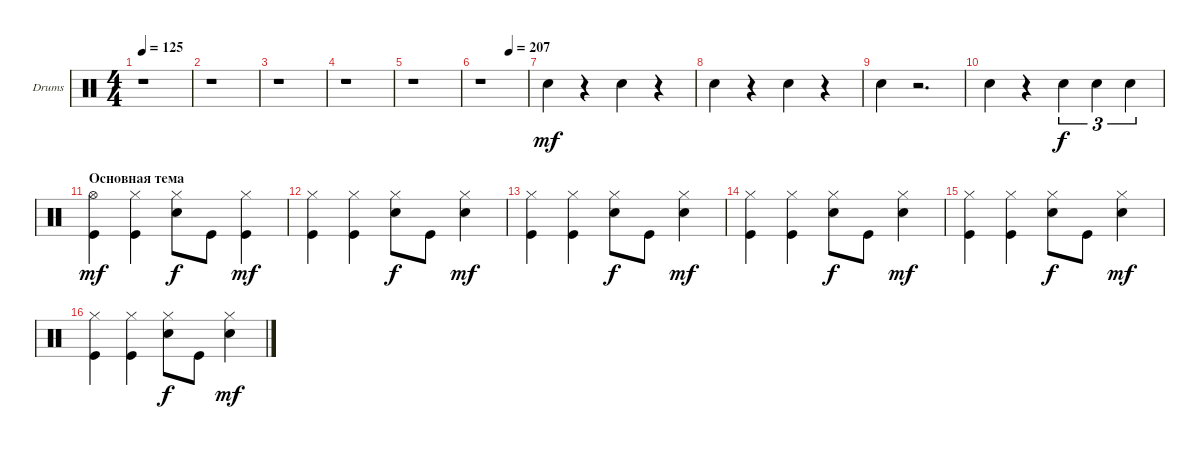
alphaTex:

\defaultSystemsLayout 4
\bracketExtendMode groupsimilarinstruments
\firstSystemTrackNameOrientation horizontal
\otherSystemsTrackNameOrientation horizontal
\track ("Drumkit" "Drums") {instrument percussion}
\staff {score}
\articulation defaults
\ts (4 4)
\tempo 125
\clef neutral
\ks c
r.1{dy mf} |
\scale
0.474178 r.1 |
\scale
0.262911 r.1 |
\scale
0.262911 r.1 |
\scale
0.333333 r.1 |
\tempo (207 0.625)
\scale
0.333333 r.1 |
\scale
0.333333 "Snare (hit) 2".4 r.4 "Snare (hit) 2".4 r.4 |
\scale
0.333333 "Snare (hit) 2".4 r.4 "Snare (hit) 2".4 r.4 |
\scale
0.333333 "Snare (hit) 2".4 r.2{d} |
\scale
0.333333 "Snare (hit) 2".4 r.4 "Snare (hit) 2".4{tu (3 2) dy f} "Snare (hit) 2".4{tu (3 2)} "Snare (hit) 2".4{tu (3 2)} |
\section ("" "Основная тема")
\scale
0.333333 ("Kick (hit)" "Hi-Hat (open)").4{dy mf} ("Hi-Hat (closed)" "Kick (hit)").4 ("Snare (hit) 2" "Hi-Hat (closed)").8{dy f} "Kick (hit)".8 ("Hi-Hat (closed)" "Kick (hit)").4{dy mf} |
\scale
0.333333 ("Kick (hit)" "Hi-Hat (closed)").4 ("Hi-Hat (closed)" "Kick (hit)").4 ("Snare (hit) 2" "Hi-Hat (closed)").8{dy f} "Kick (hit)".8 ("Hi-Hat (closed)" "Snare (hit) 2").4{dy mf} |
\scale
0.333333 ("Kick (hit)" "Hi-Hat (closed)").4 ("Hi-Hat (closed)" "Kick (hit)").4 ("Snare (hit) 2" "Hi-Hat (closed)").8{dy f} "Kick (hit)".8 ("Hi-Hat (closed)" "Snare (hit) 2").4{dy mf} |
\scale
0.333333 ("Kick (hit)" "Hi-Hat (closed)").4 ("Hi-Hat (closed)" "Kick (hit)").4 ("Snare (hit) 2" "Hi-Hat (closed)").8{dy f} "Kick (hit)".8 ("Hi-Hat (closed)" "Snare (hit) 2").4{dy mf} |
\scale
0.333333 ("Kick (hit)" "Hi-Hat (closed)").4 ("Hi-Hat (closed)" "Kick (hit)").4 ("Snare (hit) 2" "Hi-Hat (closed)").8{dy f} "Kick (hit)".8 ("Hi-Hat (closed)" "Snare (hit) 2").4{dy mf} |
\scale
0.333333 ("Kick (hit)" "Hi-Hat (closed)").4 ("Hi-Hat (closed)" "Kick (hit)").4 ("Snare (hit) 2" "Hi-Hat (closed)").8{dy f} "Kick (hit)".8 ("Hi-Hat (closed)" "Snare (hit) 2").4{dy mf}
